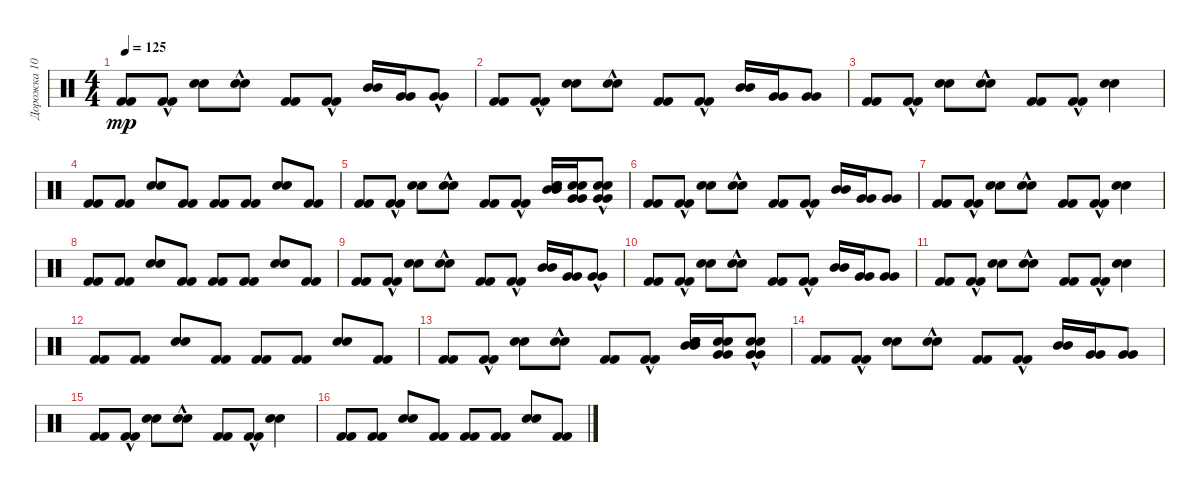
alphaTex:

\track ("Дорожка 10" "Дорожка 10") {instrument percussion}
\staff {score}
\articulation defaults
\ts (4 4)
\tempo 125
\clef neutral
\ks c
("Kick (hit) 2" "Kick (hit) 2").8{dy mp} ("Kick (hit) 2"{hac} "Kick (hit) 2"{hac}).8 ("Snare (hit) 2" "Snare (hit) 2").8 ("Snare (hit) 2"{hac} "Snare (hit) 2"{hac}).8 ("Kick (hit) 2" "Kick (hit) 2").8 ("Kick (hit) 2"{hac} "Kick (hit) 2"{hac}).8 ("Mid Tom (hit)" "Mid Tom (hit)").16 ("Very Low Tom (hit)" "Very Low Tom (hit)").16 ("Very Low Tom (hit)"{hac} "Very Low Tom (hit)"{hac}).8 |
("Kick (hit) 2" "Kick (hit) 2").8 ("Kick (hit) 2"{hac} "Kick (hit) 2"{hac}).8 ("Snare (hit) 2" "Snare (hit) 2").8 ("Snare (hit) 2"{hac} "Snare (hit) 2"{hac}).8 ("Kick (hit) 2" "Kick (hit) 2").8 ("Kick (hit) 2"{hac} "Kick (hit) 2"{hac}).8 ("Mid Tom (hit)" "Mid Tom (hit)").16 ("Very Low Tom (hit)" "Very Low Tom (hit)").16 ("Very Low Tom (hit)" "Very Low Tom (hit)").8 |
("Kick (hit) 2" "Kick (hit) 2").8 ("Kick (hit) 2"{hac} "Kick (hit) 2"{hac}).8 ("Snare (hit) 2" "Snare (hit) 2").8 ("Snare (hit) 2"{hac} "Snare (hit) 2"{hac}).8 ("Kick (hit) 2" "Kick (hit) 2").8 ("Kick (hit) 2"{hac} "Kick (hit) 2"{hac}).8 ("Snare (hit) 2" "Snare (hit) 2").4 |
("Kick (hit) 2" "Kick (hit) 2").8 ("Kick (hit) 2" "Kick (hit) 2").8 ("Snare (hit) 2" "Snare (hit) 2").8 ("Kick (hit) 2" "Kick (hit) 2").8 ("Kick (hit) 2" "Kick (hit) 2").8 ("Kick (hit) 2" "Kick (hit) 2").8 ("Snare (hit) 2" "Snare (hit) 2").8 ("Kick (hit) 2" "Kick (hit) 2").8 |
("Kick (hit) 2" "Kick (hit) 2").8 ("Kick (hit) 2"{hac} "Kick (hit) 2"{hac}).8 ("Snare (hit) 2" "Snare (hit) 2").8 ("Snare (hit) 2"{hac} "Snare (hit) 2"{hac}).8 ("Kick (hit) 2" "Kick (hit) 2").8 ("Kick (hit) 2"{hac} "Kick (hit) 2"{hac}).8 ("Snare (hit) 2" "Mid Tom (hit)" "Snare (hit) 2" "Mid Tom (hit)").16 ("Snare (hit) 2" "Very Low Tom (hit)" "Snare (hit) 2" "Very Low Tom (hit)").16 ("Snare (hit) 2"{hac} "Very Low Tom (hit)"{hac} "Snare (hit) 2"{hac} "Very Low Tom (hit)"{hac}).8 |
("Kick (hit) 2" "Kick (hit) 2").8 ("Kick (hit) 2"{hac} "Kick (hit) 2"{hac}).8 ("Snare (hit) 2" "Snare (hit) 2").8 ("Snare (hit) 2"{hac} "Snare (hit) 2"{hac}).8 ("Kick (hit) 2" "Kick (hit) 2").8 ("Kick (hit) 2"{hac} "Kick (hit) 2"{hac}).8 ("Mid Tom (hit)" "Mid Tom (hit)").16 ("Very Low Tom (hit)" "Very Low Tom (hit)").16 ("Very Low Tom (hit)" "Very Low Tom (hit)").8 |
("Kick (hit) 2" "Kick (hit) 2").8 ("Kick (hit) 2"{hac} "Kick (hit) 2"{hac}).8 ("Snare (hit) 2" "Snare (hit) 2").8 ("Snare (hit) 2"{hac} "Snare (hit) 2"{hac}).8 ("Kick (hit) 2" "Kick (hit) 2").8 ("Kick (hit) 2"{hac} "Kick (hit) 2"{hac}).8 ("Snare (hit) 2" "Snare (hit) 2").4 |
("Kick (hit) 2" "Kick (hit) 2").8 ("Kick (hit) 2" "Kick (hit) 2").8 ("Snare (hit) 2" "Snare (hit) 2").8 ("Kick (hit) 2" "Kick (hit) 2").8 ("Kick (hit) 2" "Kick (hit) 2").8 ("Kick (hit) 2" "Kick (hit) 2").8 ("Snare (hit) 2" "Snare (hit) 2").8 ("Kick (hit) 2" "Kick (hit) 2").8 |
("Kick (hit) 2" "Kick (hit) 2").8 ("Kick (hit) 2"{hac} "Kick (hit) 2"{hac}).8 ("Snare (hit) 2" "Snare (hit) 2").8 ("Snare (hit) 2"{hac} "Snare (hit) 2"{hac}).8 ("Kick (hit) 2" "Kick (hit) 2").8 ("Kick (hit) 2"{hac} "Kick (hit) 2"{hac}).8 ("Mid Tom (hit)" "Mid Tom (hit)").16 ("Very Low Tom (hit)" "Very Low Tom (hit)").16 ("Very Low Tom (hit)"{hac} "Very Low Tom (hit)"{hac}).8 |
("Kick (hit) 2" "Kick (hit) 2").8 ("Kick (hit) 2"{hac} "Kick (hit) 2"{hac}).8 ("Snare (hit) 2" "Snare (hit) 2").8 ("Snare (hit) 2"{hac} "Snare (hit) 2"{hac}).8 ("Kick (hit) 2" "Kick (hit) 2").8 ("Kick (hit) 2"{hac} "Kick (hit) 2"{hac}).8 ("Mid Tom (hit)" "Mid Tom (hit)").16 ("Very Low Tom (hit)" "Very Low Tom (hit)").16 ("Very Low Tom (hit)" "Very Low Tom (hit)").8 |
("Kick (hit) 2" "Kick (hit) 2").8 ("Kick (hit) 2"{hac} "Kick (hit) 2"{hac}).8 ("Snare (hit) 2" "Snare (hit) 2").8 ("Snare (hit) 2"{hac} "Snare (hit) 2"{hac}).8 ("Kick (hit) 2" "Kick (hit) 2").8 ("Kick (hit) 2"{hac} "Kick (hit) 2"{hac}).8 ("Snare (hit) 2" "Snare (hit) 2").4 |
("Kick (hit) 2" "Kick (hit) 2").8 ("Kick (hit) 2" "Kick (hit) 2").8 ("Snare (hit) 2" "Snare (hit) 2").8 ("Kick (hit) 2" "Kick (hit) 2").8 ("Kick (hit) 2" "Kick (hit) 2").8 ("Kick (hit) 2" "Kick (hit) 2").8 ("Snare (hit) 2" "Snare (hit) 2").8 ("Kick (hit) 2" "Kick (hit) 2").8 |
("Kick (hit) 2" "Kick (hit) 2").8 ("Kick (hit) 2"{hac} "Kick (hit) 2"{hac}).8 ("Snare (hit) 2" "Snare (hit) 2").8 ("Snare (hit) 2"{hac} "Snare (hit) 2"{hac}).8 ("Kick (hit) 2" "Kick (hit) 2").8 ("Kick (hit) 2"{hac} "Kick (hit) 2"{hac}).8 ("Snare (hit) 2" "Mid Tom (hit)" "Snare (hit) 2" "Mid Tom (hit)").16 ("Snare (hit) 2" "Very Low Tom (hit)" "Snare (hit) 2" "Very Low Tom (hit)").16 ("Snare (hit) 2"{hac} "Very Low Tom (hit)"{hac} "Snare (hit) 2"{hac} "Very Low Tom (hit)"{hac}).8 |
("Kick (hit) 2" "Kick (hit) 2").8 ("Kick (hit) 2"{hac} "Kick (hit) 2"{hac}).8 ("Snare (hit) 2" "Snare (hit) 2").8 ("Snare (hit) 2"{hac} "Snare (hit) 2"{hac}).8 ("Kick (hit) 2" "Kick (hit) 2").8 ("Kick (hit) 2"{hac} "Kick (hit) 2"{hac}).8 ("Mid Tom (hit)" "Mid Tom (hit)").16 ("Very Low Tom (hit)" "Very Low Tom (hit)").16 ("Very Low Tom (hit)" "Very Low Tom (hit)").8 |
("Kick (hit) 2" "Kick (hit) 2").8 ("Kick (hit) 2"{hac} "Kick (hit) 2"{hac}).8 ("Snare (hit) 2" "Snare (hit) 2").8 ("Snare (hit) 2"{hac} "Snare (hit) 2"{hac}).8 ("Kick (hit) 2" "Kick (hit) 2").8 ("Kick (hit) 2"{hac} "Kick (hit) 2"{hac}).8 ("Snare (hit) 2" "Snare (hit) 2").4 |
("Kick (hit) 2" "Kick (hit) 2").8 ("Kick (hit) 2" "Kick (hit) 2").8 ("Snare (hit) 2" "Snare (hit) 2").8 ("Kick (hit) 2" "Kick (hit) 2").8 ("Kick (hit) 2" "Kick (hit) 2").8 ("Kick (hit) 2" "Kick (hit) 2").8 ("Snare (hit) 2" "Snare (hit) 2").8 ("Kick (hit) 2" "Kick (hit) 2").8
